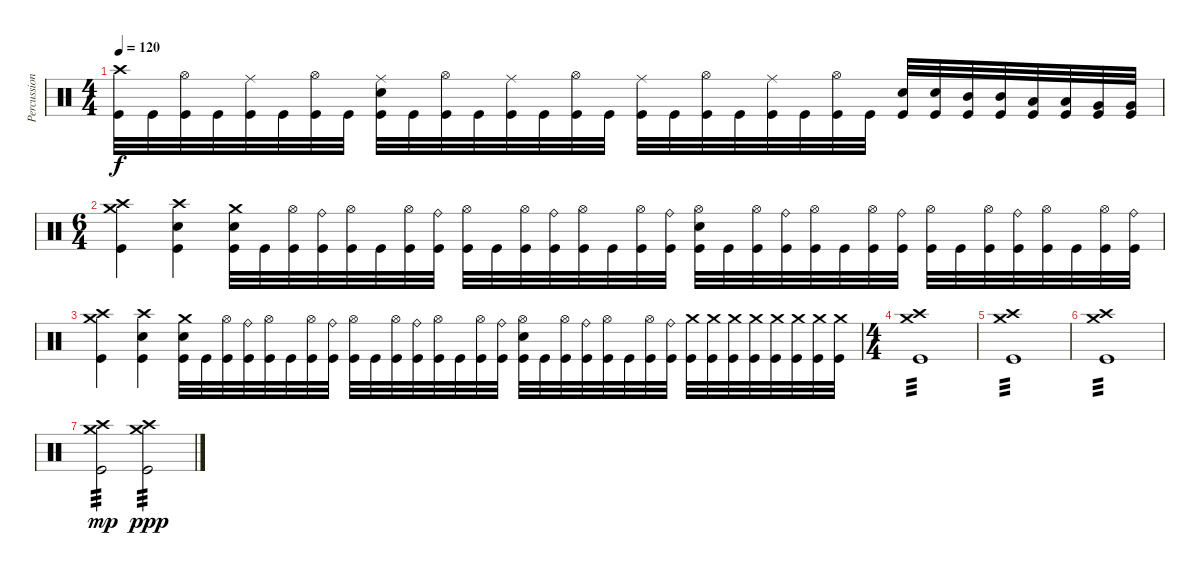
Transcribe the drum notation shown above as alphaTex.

\track ("Percussion" "Percussion") {instrument percussion}
\staff {score}
\articulation defaults
\ts (4 4)
\tempo 120
\clef neutral
\ks c
("Crash high (hit)" "Kick (hit)").32{dy f} "Kick (hit)".32 ("Hi-Hat (open)" "Kick (hit)").32 "Kick (hit)".32 ("Ride (middle)" "Kick (hit)").32 "Kick (hit)".32 ("Hi-Hat (open)" "Kick (hit)").32 "Kick (hit)".32 ("Ride (middle)" "Electric Snare (hit)" "Kick (hit)").32 "Kick (hit)".32 ("Hi-Hat (open)" "Kick (hit)").32 "Kick (hit)".32 ("Ride (middle)" "Kick (hit)").32 "Kick (hit)".32 ("Hi-Hat (open)" "Kick (hit)").32 "Kick (hit)".32 ("Ride (middle)" "Kick (hit)").32 "Kick (hit)".32 ("Hi-Hat (open)" "Kick (hit)").32 "Kick (hit)".32 ("Ride (middle)" "Kick (hit)").32 "Kick (hit)".32 ("Hi-Hat (open)" "Kick (hit)").32 "Kick (hit)".32 ("Electric Snare (hit)" "Kick (hit)").32 ("Electric Snare (hit)" "Kick (hit)").32 ("Mid Tom (hit)" "Kick (hit)").32 ("Mid Tom (hit)" "Kick (hit)").32 ("Low Tom (hit)" "Kick (hit)").32 ("Low Tom (hit)" "Kick (hit)").32 ("Very Low Tom (hit)" "Kick (hit)").32 ("Very Low Tom (hit)" "Kick (hit)").32 |
\ts (6 4)
("Crash medium (hit)" "Crash high (hit)" "Kick (hit)").4 ("Crash high (hit)" "Electric Snare (hit)" "Kick (hit)").4 ("Crash medium (hit)" "Electric Snare (hit)" "Kick (hit)").32 "Kick (hit)".32 ("Hi-Hat (open)" "Kick (hit)").32 ("Ride (bell)" "Kick (hit)").32 ("Hi-Hat (open)" "Kick (hit)").32 "Kick (hit)".32 ("Hi-Hat (open)" "Kick (hit)").32 ("Ride (bell)" "Kick (hit)").32 ("Hi-Hat (open)" "Kick (hit)").32 "Kick (hit)".32 ("Hi-Hat (open)" "Kick (hit)").32 ("Ride (bell)" "Kick (hit)").32 ("Hi-Hat (open)" "Kick (hit)").32 "Kick (hit)".32 ("Hi-Hat (open)" "Kick (hit)").32 ("Ride (bell)" "Kick (hit)").32 ("Hi-Hat (open)" "Electric Snare (hit)" "Kick (hit)").32 "Kick (hit)".32 ("Hi-Hat (open)" "Kick (hit)").32 ("Ride (bell)" "Kick (hit)").32 ("Hi-Hat (open)" "Kick (hit)").32 "Kick (hit)".32 ("Hi-Hat (open)" "Kick (hit)").32 ("Ride (bell)" "Kick (hit)").32 ("Hi-Hat (open)" "Kick (hit)").32 "Kick (hit)".32 ("Hi-Hat (open)" "Kick (hit)").32 ("Ride (bell)" "Kick (hit)").32 ("Hi-Hat (open)" "Kick (hit)").32 "Kick (hit)".32 ("Hi-Hat (open)" "Kick (hit)").32 ("Ride (bell)" "Kick (hit)").32 |
("Crash medium (hit)" "Crash high (hit)" "Kick (hit)").4 ("Crash high (hit)" "Electric Snare (hit)" "Kick (hit)").4 ("Crash medium (hit)" "Electric Snare (hit)" "Kick (hit)").32 "Kick (hit)".32 ("Hi-Hat (open)" "Kick (hit)").32 ("Ride (bell)" "Kick (hit)").32 ("Hi-Hat (open)" "Kick (hit)").32 "Kick (hit)".32 ("Hi-Hat (open)" "Kick (hit)").32 ("Ride (bell)" "Kick (hit)").32 ("Hi-Hat (open)" "Kick (hit)").32 "Kick (hit)".32 ("Hi-Hat (open)" "Kick (hit)").32 ("Ride (bell)" "Kick (hit)").32 ("Hi-Hat (open)" "Kick (hit)").32 "Kick (hit)".32 ("Hi-Hat (open)" "Kick (hit)").32 ("Ride (bell)" "Kick (hit)").32 ("Hi-Hat (open)" "Electric Snare (hit)" "Kick (hit)").32 "Kick (hit)".32 ("Hi-Hat (open)" "Kick (hit)").32 ("Ride (bell)" "Kick (hit)").32 ("Hi-Hat (open)" "Kick (hit)").32 "Kick (hit)".32 ("Hi-Hat (open)" "Kick (hit)").32 ("Ride (bell)" "Kick (hit)").32 ("Crash medium (hit)" "Kick (hit)").32 ("Crash medium (hit)" "Kick (hit)").32 ("Crash medium (hit)" "Kick (hit)").32 ("Crash medium (hit)" "Kick (hit)").32 ("Crash medium (hit)" "Kick (hit)").32 ("Crash medium (hit)" "Kick (hit)").32 ("Crash medium (hit)" "Kick (hit)").32 ("Crash medium (hit)" "Kick (hit)").32 |
\ts (4 4)
("Crash high (hit)" "Crash medium (hit)" "Kick (hit)").1{tp 3} |
("Crash high (hit)" "Crash medium (hit)" "Kick (hit)").1{tp 3} |
("Crash medium (hit)" "Crash high (hit)" "Kick (hit)").1{tp 3} |
("Crash medium (hit)" "Crash high (hit)" "Kick (hit)").2{tp 3 dy mp} ("Crash medium (hit)" "Crash high (hit)" "Kick (hit)").2{tp 3 dy ppp}
